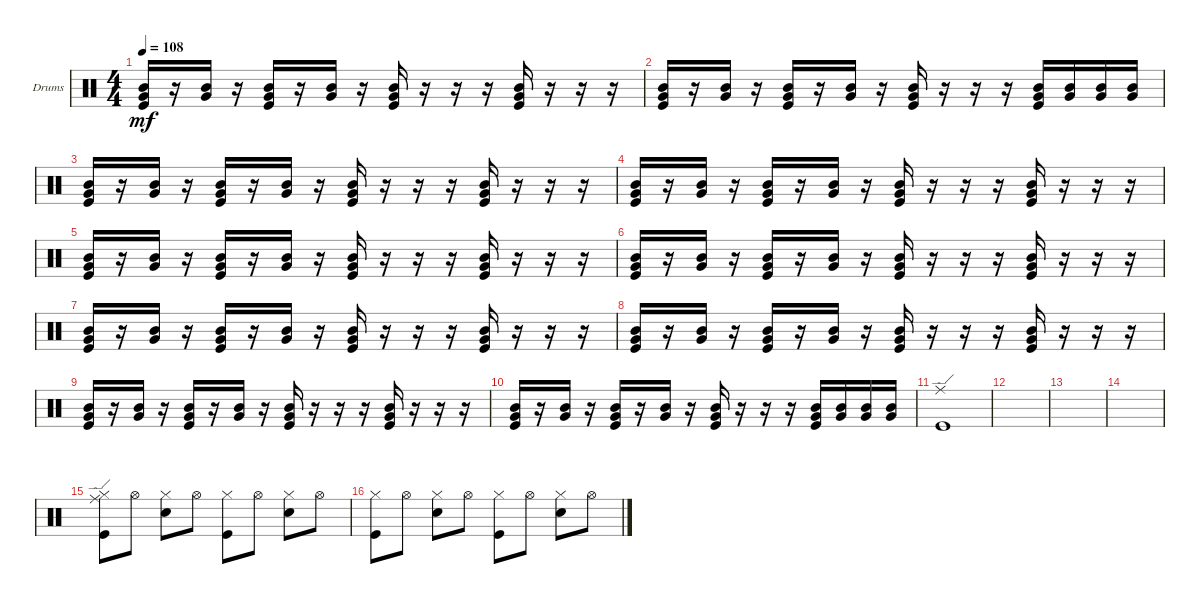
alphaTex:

\defaultSystemsLayout 4
\bracketExtendMode groupsimilarinstruments
\firstSystemTrackNameOrientation horizontal
\otherSystemsTrackNameOrientation horizontal
\track ("Drumkit" "Drums") {instrument percussion}
\staff {score}
\articulation defaults
\ts (4 4)
\tempo 108
\clef neutral
\ks c
("Kick (hit)" "Mid Tom (hit)" "Very Low Tom (hit)").16{dy mf} r.16 ("Mid Tom (hit)" "Very Low Tom (hit)").16 r.16 ("Kick (hit)" "Mid Tom (hit)" "Very Low Tom (hit)").16 r.16 ("Mid Tom (hit)" "Very Low Tom (hit)").16 r.16 ("Kick (hit)" "Mid Tom (hit)" "Very Low Tom (hit)").16 r.16 r.16 r.16 ("Kick (hit)" "Mid Tom (hit)" "Very Low Tom (hit)").16 r.16 r.16 r.16 |
("Kick (hit)" "Mid Tom (hit)" "Very Low Tom (hit)").16 r.16 ("Mid Tom (hit)" "Very Low Tom (hit)").16 r.16 ("Kick (hit)" "Mid Tom (hit)" "Very Low Tom (hit)").16 r.16 ("Mid Tom (hit)" "Very Low Tom (hit)").16 r.16 ("Kick (hit)" "Mid Tom (hit)" "Very Low Tom (hit)").16 r.16 r.16 r.16 ("Kick (hit)" "Mid Tom (hit)" "Very Low Tom (hit)").16 ("Very Low Tom (hit)" "Mid Tom (hit)").16 ("Very Low Tom (hit)" "Mid Tom (hit)").16 ("Very Low Tom (hit)" "Mid Tom (hit)").16 |
("Kick (hit)" "Mid Tom (hit)" "Very Low Tom (hit)").16 r.16 ("Mid Tom (hit)" "Very Low Tom (hit)").16 r.16 ("Kick (hit)" "Mid Tom (hit)" "Very Low Tom (hit)").16 r.16 ("Mid Tom (hit)" "Very Low Tom (hit)").16 r.16 ("Kick (hit)" "Mid Tom (hit)" "Very Low Tom (hit)").16 r.16 r.16 r.16 ("Kick (hit)" "Mid Tom (hit)" "Very Low Tom (hit)").16 r.16 r.16 r.16 |
("Kick (hit)" "Mid Tom (hit)" "Very Low Tom (hit)").16 r.16 ("Mid Tom (hit)" "Very Low Tom (hit)").16 r.16 ("Kick (hit)" "Mid Tom (hit)" "Very Low Tom (hit)").16 r.16 ("Mid Tom (hit)" "Very Low Tom (hit)").16 r.16 ("Kick (hit)" "Mid Tom (hit)" "Very Low Tom (hit)").16 r.16 r.16 r.16 ("Kick (hit)" "Mid Tom (hit)" "Very Low Tom (hit)").16 r.16 r.16 r.16 |
("Kick (hit)" "Mid Tom (hit)" "Very Low Tom (hit)").16 r.16 ("Mid Tom (hit)" "Very Low Tom (hit)").16 r.16 ("Kick (hit)" "Mid Tom (hit)" "Very Low Tom (hit)").16 r.16 ("Mid Tom (hit)" "Very Low Tom (hit)").16 r.16 ("Kick (hit)" "Mid Tom (hit)" "Very Low Tom (hit)").16 r.16 r.16 r.16 ("Kick (hit)" "Mid Tom (hit)" "Very Low Tom (hit)").16 r.16 r.16 r.16 |
("Kick (hit)" "Mid Tom (hit)" "Very Low Tom (hit)").16 r.16 ("Mid Tom (hit)" "Very Low Tom (hit)").16 r.16 ("Kick (hit)" "Mid Tom (hit)" "Very Low Tom (hit)").16 r.16 ("Mid Tom (hit)" "Very Low Tom (hit)").16 r.16 ("Kick (hit)" "Mid Tom (hit)" "Very Low Tom (hit)").16 r.16 r.16 r.16 ("Kick (hit)" "Mid Tom (hit)" "Very Low Tom (hit)").16 r.16 r.16 r.16 |
("Kick (hit)" "Mid Tom (hit)" "Very Low Tom (hit)").16 r.16 ("Mid Tom (hit)" "Very Low Tom (hit)").16 r.16 ("Kick (hit)" "Mid Tom (hit)" "Very Low Tom (hit)").16 r.16 ("Mid Tom (hit)" "Very Low Tom (hit)").16 r.16 ("Kick (hit)" "Mid Tom (hit)" "Very Low Tom (hit)").16 r.16 r.16 r.16 ("Kick (hit)" "Mid Tom (hit)" "Very Low Tom (hit)").16 r.16 r.16 r.16 |
("Kick (hit)" "Mid Tom (hit)" "Very Low Tom (hit)").16 r.16 ("Mid Tom (hit)" "Very Low Tom (hit)").16 r.16 ("Kick (hit)" "Mid Tom (hit)" "Very Low Tom (hit)").16 r.16 ("Mid Tom (hit)" "Very Low Tom (hit)").16 r.16 ("Kick (hit)" "Mid Tom (hit)" "Very Low Tom (hit)").16 r.16 r.16 r.16 ("Kick (hit)" "Mid Tom (hit)" "Very Low Tom (hit)").16 r.16 r.16 r.16 |
("Kick (hit)" "Mid Tom (hit)" "Very Low Tom (hit)").16 r.16 ("Mid Tom (hit)" "Very Low Tom (hit)").16 r.16 ("Kick (hit)" "Mid Tom (hit)" "Very Low Tom (hit)").16 r.16 ("Mid Tom (hit)" "Very Low Tom (hit)").16 r.16 ("Kick (hit)" "Mid Tom (hit)" "Very Low Tom (hit)").16 r.16 r.16 r.16 ("Kick (hit)" "Mid Tom (hit)" "Very Low Tom (hit)").16 r.16 r.16 r.16 |
("Kick (hit)" "Mid Tom (hit)" "Very Low Tom (hit)").16 r.16 ("Mid Tom (hit)" "Very Low Tom (hit)").16 r.16 ("Kick (hit)" "Mid Tom (hit)" "Very Low Tom (hit)").16 r.16 ("Mid Tom (hit)" "Very Low Tom (hit)").16 r.16 ("Kick (hit)" "Mid Tom (hit)" "Very Low Tom (hit)").16 r.16 r.16 r.16 ("Kick (hit)" "Mid Tom (hit)" "Very Low Tom (hit)").16 ("Very Low Tom (hit)" "Mid Tom (hit)").16 ("Very Low Tom (hit)" "Mid Tom (hit)").16 ("Very Low Tom (hit)" "Mid Tom (hit)").16 |
("Kick (hit)" "Ride (edge)").1 |
|
|
|
("Hi-Hat (closed)" "Kick (hit)" "Ride (edge)").8 "Hi-Hat (open)".8 ("Hi-Hat (closed)" "Snare (hit) 2").8 "Hi-Hat (open)".8 ("Hi-Hat (closed)" "Kick (hit)").8 "Hi-Hat (open)".8 ("Hi-Hat (closed)" "Snare (hit) 2").8 "Hi-Hat (open)".8 |
("Hi-Hat (closed)" "Kick (hit)").8 "Hi-Hat (open)".8 ("Hi-Hat (closed)" "Snare (hit) 2").8 "Hi-Hat (open)".8 ("Hi-Hat (closed)" "Kick (hit)").8 "Hi-Hat (open)".8 ("Hi-Hat (closed)" "Snare (hit) 2").8 "Hi-Hat (open)".8
